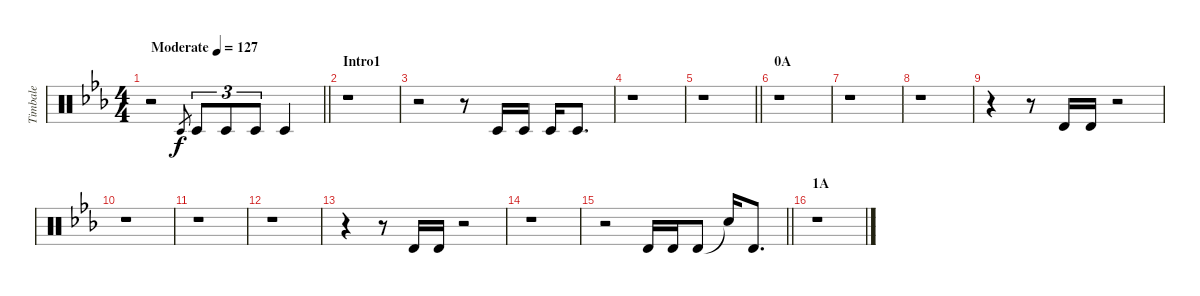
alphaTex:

\track ("Timbale" "Timbale") {instrument percussion}
\staff {score}
\articulation defaults
\ts (4 4)
\tempo (127 "Moderate")
\clef neutral
\barLineRight lightlight
\ks eb
r.2{dy f} "Timbale low (hit)".8{gr} "Timbale low (hit)".8{tu (3 2)} "Timbale low (hit)".8{tu (3 2)} "Timbale low (hit)".8{tu (3 2)} "Timbale low (hit)".4 |
\section ("" "Intro1")
r.1 |
r.2 r.8 "Timbale low (hit)".16 "Timbale low (hit)".16 "Timbale low (hit)".16 "Timbale low (hit)".8{d} |
r.1 |
\barLineRight lightlight
r.1 |
\section ("" "0A")
r.1 |
r.1 |
r.1 |
r.4 r.8 "Timbale high (hit)".16 "Timbale high (hit)".16 r.2 |
r.1 |
r.1 |
r.1 |
r.4 r.8 "Timbale high (hit)".16 "Timbale high (hit)".16 r.2 |
r.1 |
\barLineRight lightlight
r.2 "Timbale high (hit)".16 "Timbale high (hit)".16 "Timbale high (hit)".8 "Snare (hit)"{t}.16 "Timbale high (hit)".8{d} |
\section ("" "1A")
r.1
